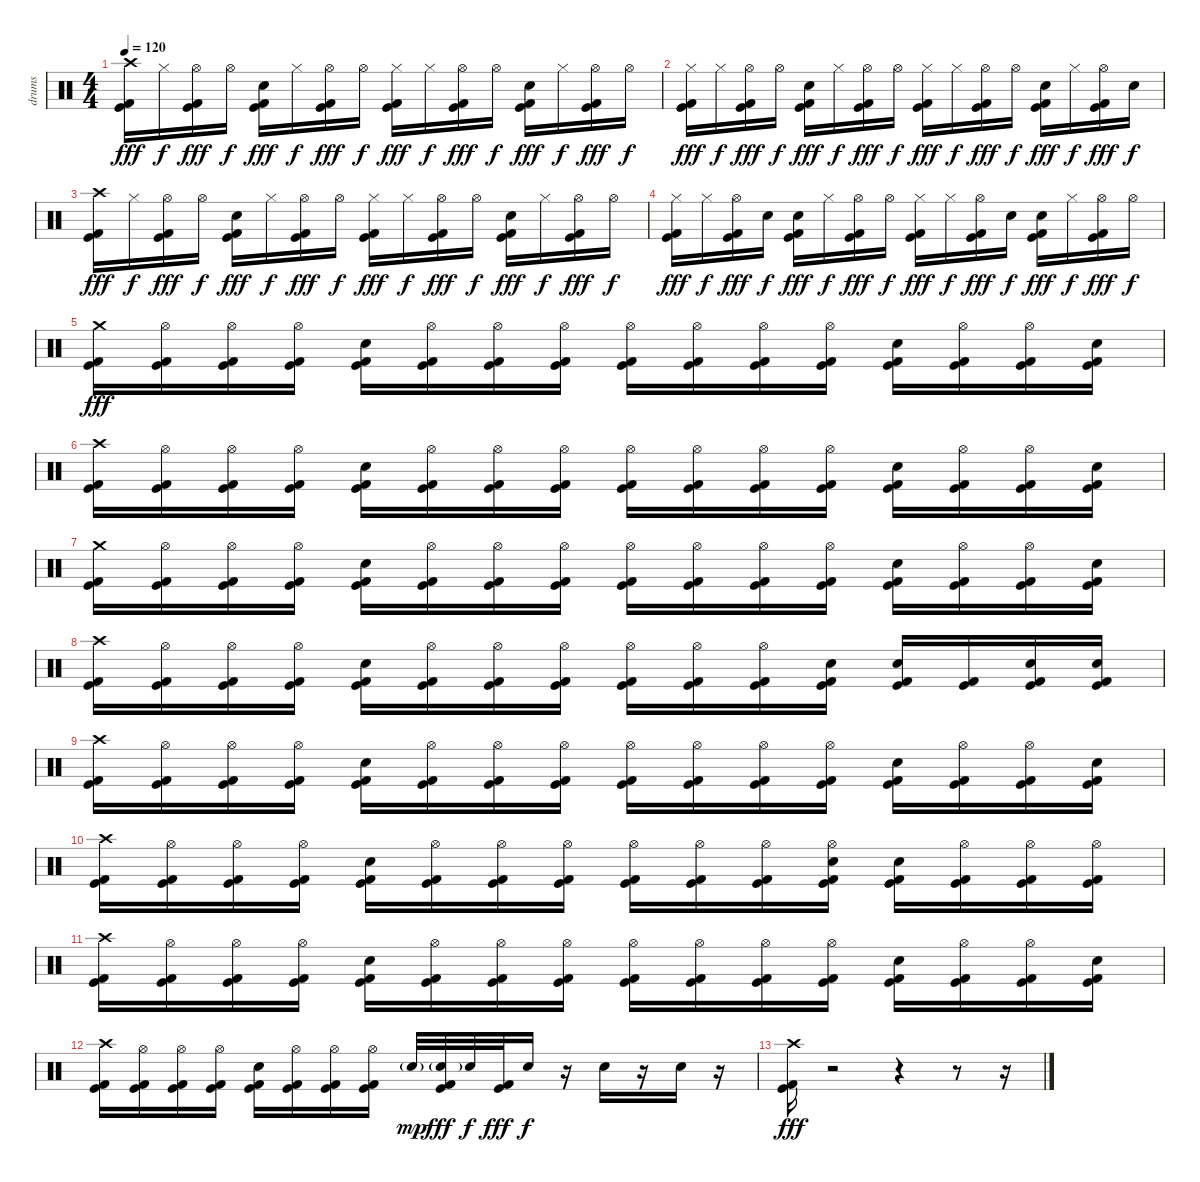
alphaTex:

\track ("drums" "drums") {instrument percussion}
\staff {score}
\articulation defaults
\ts (4 4)
\tempo 120
\clef neutral
\ks c
("Crash high (hit)" "Kick (hit)" "Kick (hit) 2").16{dy fff} "Hi-Hat (closed)".16{dy f} ("Hi-Hat (open)" "Kick (hit)" "Kick (hit) 2").16{dy fff} "Hi-Hat (open)".16{dy f} ("Electric Snare (hit)" "Kick (hit)" "Kick (hit) 2").16{dy fff} "Hi-Hat (closed)".16{dy f} ("Hi-Hat (open)" "Kick (hit)" "Kick (hit) 2").16{dy fff} "Hi-Hat (open)".16{dy f} ("Hi-Hat (closed)" "Kick (hit)" "Kick (hit) 2").16{dy fff} "Hi-Hat (closed)".16{dy f} ("Hi-Hat (open)" "Kick (hit)" "Kick (hit) 2").16{dy fff} "Hi-Hat (open)".16{dy f} ("Electric Snare (hit)" "Kick (hit)" "Kick (hit) 2").16{dy fff} "Hi-Hat (closed)".16{dy f} ("Hi-Hat (open)" "Kick (hit)" "Kick (hit) 2").16{dy fff} "Hi-Hat (open)".16{dy f} |
("Hi-Hat (closed)" "Kick (hit)" "Kick (hit) 2").16{dy fff} "Hi-Hat (closed)".16{dy f} ("Hi-Hat (open)" "Kick (hit)" "Kick (hit) 2").16{dy fff} "Hi-Hat (open)".16{dy f} ("Electric Snare (hit)" "Kick (hit)" "Kick (hit) 2").16{dy fff} "Hi-Hat (closed)".16{dy f} ("Hi-Hat (open)" "Kick (hit)" "Kick (hit) 2").16{dy fff} "Hi-Hat (open)".16{dy f} ("Hi-Hat (closed)" "Kick (hit)" "Kick (hit) 2").16{dy fff} "Hi-Hat (closed)".16{dy f} ("Hi-Hat (open)" "Kick (hit)" "Kick (hit) 2").16{dy fff} "Hi-Hat (open)".16{dy f} ("Electric Snare (hit)" "Kick (hit)" "Kick (hit) 2").16{dy fff} "Hi-Hat (closed)".16{dy f} ("Hi-Hat (open)" "Kick (hit)" "Kick (hit) 2").16{dy fff} "Electric Snare (hit)".16{dy f} |
("Crash high (hit)" "Kick (hit)" "Kick (hit) 2").16{dy fff} "Hi-Hat (closed)".16{dy f} ("Hi-Hat (open)" "Kick (hit)" "Kick (hit) 2").16{dy fff} "Hi-Hat (open)".16{dy f} ("Electric Snare (hit)" "Kick (hit)" "Kick (hit) 2").16{dy fff} "Hi-Hat (closed)".16{dy f} ("Hi-Hat (open)" "Kick (hit)" "Kick (hit) 2").16{dy fff} "Hi-Hat (open)".16{dy f} ("Hi-Hat (closed)" "Kick (hit)" "Kick (hit) 2").16{dy fff} "Hi-Hat (closed)".16{dy f} ("Hi-Hat (open)" "Kick (hit)" "Kick (hit) 2").16{dy fff} "Hi-Hat (open)".16{dy f} ("Electric Snare (hit)" "Kick (hit)" "Kick (hit) 2").16{dy fff} "Hi-Hat (closed)".16{dy f} ("Hi-Hat (open)" "Kick (hit)" "Kick (hit) 2").16{dy fff} "Hi-Hat (open)".16{dy f} |
("Hi-Hat (closed)" "Kick (hit)" "Kick (hit) 2").16{dy fff} "Hi-Hat (closed)".16{dy f} ("Hi-Hat (open)" "Kick (hit)" "Kick (hit) 2").16{dy fff} "Electric Snare (hit)".16{dy f} ("Electric Snare (hit)" "Kick (hit)" "Kick (hit) 2").16{dy fff} "Hi-Hat (closed)".16{dy f} ("Hi-Hat (open)" "Kick (hit)" "Kick (hit) 2").16{dy fff} "Hi-Hat (open)".16{dy f} ("Hi-Hat (closed)" "Kick (hit)" "Kick (hit) 2").16{dy fff} "Hi-Hat (closed)".16{dy f} ("Hi-Hat (open)" "Kick (hit)" "Kick (hit) 2").16{dy fff} "Electric Snare (hit)".16{dy f} ("Electric Snare (hit)" "Kick (hit)" "Kick (hit) 2").16{dy fff} "Hi-Hat (closed)".16{dy f} ("Hi-Hat (open)" "Kick (hit)" "Kick (hit) 2").16{dy fff} "Hi-Hat (open)".16{dy f} |
("Crash medium (hit)" "Kick (hit)" "Kick (hit) 2").16{dy fff} ("Hi-Hat (open)" "Kick (hit)" "Kick (hit) 2").16 ("Hi-Hat (open)" "Kick (hit)" "Kick (hit) 2").16 ("Hi-Hat (open)" "Kick (hit)" "Kick (hit) 2").16 ("Electric Snare (hit)" "Kick (hit)" "Kick (hit) 2").16 ("Hi-Hat (open)" "Kick (hit)" "Kick (hit) 2").16 ("Hi-Hat (open)" "Kick (hit)" "Kick (hit) 2").16 ("Hi-Hat (open)" "Kick (hit)" "Kick (hit) 2").16 ("Hi-Hat (open)" "Kick (hit)" "Kick (hit) 2").16 ("Hi-Hat (open)" "Kick (hit)" "Kick (hit) 2").16 ("Hi-Hat (open)" "Kick (hit)" "Kick (hit) 2").16 ("Hi-Hat (open)" "Kick (hit)" "Kick (hit) 2").16 ("Electric Snare (hit)" "Kick (hit)" "Kick (hit) 2").16 ("Hi-Hat (open)" "Kick (hit)" "Kick (hit) 2").16 ("Hi-Hat (open)" "Kick (hit)" "Kick (hit) 2").16 ("Electric Snare (hit)" "Kick (hit)" "Kick (hit) 2").16 |
("Crash high (hit)" "Kick (hit)" "Kick (hit) 2").16 ("Hi-Hat (open)" "Kick (hit)" "Kick (hit) 2").16 ("Hi-Hat (open)" "Kick (hit)" "Kick (hit) 2").16 ("Hi-Hat (open)" "Kick (hit)" "Kick (hit) 2").16 ("Electric Snare (hit)" "Kick (hit)" "Kick (hit) 2").16 ("Hi-Hat (open)" "Kick (hit)" "Kick (hit) 2").16 ("Hi-Hat (open)" "Kick (hit)" "Kick (hit) 2").16 ("Hi-Hat (open)" "Kick (hit)" "Kick (hit) 2").16 ("Hi-Hat (open)" "Kick (hit)" "Kick (hit) 2").16 ("Hi-Hat (open)" "Kick (hit)" "Kick (hit) 2").16 ("Hi-Hat (open)" "Kick (hit)" "Kick (hit) 2").16 ("Hi-Hat (open)" "Kick (hit)" "Kick (hit) 2").16 ("Electric Snare (hit)" "Kick (hit)" "Kick (hit) 2").16 ("Hi-Hat (open)" "Kick (hit)" "Kick (hit) 2").16 ("Hi-Hat (open)" "Kick (hit)" "Kick (hit) 2").16 ("Electric Snare (hit)" "Kick (hit)" "Kick (hit) 2").16 |
("Crash medium (hit)" "Kick (hit)" "Kick (hit) 2").16 ("Hi-Hat (open)" "Kick (hit)" "Kick (hit) 2").16 ("Hi-Hat (open)" "Kick (hit)" "Kick (hit) 2").16 ("Hi-Hat (open)" "Kick (hit)" "Kick (hit) 2").16 ("Electric Snare (hit)" "Kick (hit)" "Kick (hit) 2").16 ("Hi-Hat (open)" "Kick (hit)" "Kick (hit) 2").16 ("Hi-Hat (open)" "Kick (hit)" "Kick (hit) 2").16 ("Hi-Hat (open)" "Kick (hit)" "Kick (hit) 2").16 ("Hi-Hat (open)" "Kick (hit)" "Kick (hit) 2").16 ("Hi-Hat (open)" "Kick (hit)" "Kick (hit) 2").16 ("Hi-Hat (open)" "Kick (hit)" "Kick (hit) 2").16 ("Hi-Hat (open)" "Kick (hit)" "Kick (hit) 2").16 ("Electric Snare (hit)" "Kick (hit)" "Kick (hit) 2").16 ("Hi-Hat (open)" "Kick (hit)" "Kick (hit) 2").16 ("Hi-Hat (open)" "Kick (hit)" "Kick (hit) 2").16 ("Electric Snare (hit)" "Kick (hit)" "Kick (hit) 2").16 |
("Crash high (hit)" "Kick (hit)" "Kick (hit) 2").16 ("Hi-Hat (open)" "Kick (hit)" "Kick (hit) 2").16 ("Hi-Hat (open)" "Kick (hit)" "Kick (hit) 2").16 ("Hi-Hat (open)" "Kick (hit)" "Kick (hit) 2").16 ("Electric Snare (hit)" "Kick (hit)" "Kick (hit) 2").16 ("Hi-Hat (open)" "Kick (hit)" "Kick (hit) 2").16 ("Hi-Hat (open)" "Kick (hit)" "Kick (hit) 2").16 ("Hi-Hat (open)" "Kick (hit)" "Kick (hit) 2").16 ("Hi-Hat (open)" "Kick (hit)" "Kick (hit) 2").16 ("Hi-Hat (open)" "Kick (hit)" "Kick (hit) 2").16 ("Hi-Hat (open)" "Kick (hit)" "Kick (hit) 2").16 ("Electric Snare (hit)" "Kick (hit)" "Kick (hit) 2").16 ("Electric Snare (hit)" "Kick (hit)" "Kick (hit) 2").16 ("Kick (hit)" "Kick (hit) 2").16 ("Electric Snare (hit)" "Kick (hit)" "Kick (hit) 2").16 ("Electric Snare (hit)" "Kick (hit)" "Kick (hit) 2").16 |
("Crash high (hit)" "Kick (hit)" "Kick (hit) 2").16 ("Hi-Hat (open)" "Kick (hit)" "Kick (hit) 2").16 ("Hi-Hat (open)" "Kick (hit)" "Kick (hit) 2").16 ("Hi-Hat (open)" "Kick (hit)" "Kick (hit) 2").16 ("Electric Snare (hit)" "Kick (hit)" "Kick (hit) 2").16 ("Hi-Hat (open)" "Kick (hit)" "Kick (hit) 2").16 ("Hi-Hat (open)" "Kick (hit)" "Kick (hit) 2").16 ("Hi-Hat (open)" "Kick (hit)" "Kick (hit) 2").16 ("Hi-Hat (open)" "Kick (hit)" "Kick (hit) 2").16 ("Hi-Hat (open)" "Kick (hit)" "Kick (hit) 2").16 ("Hi-Hat (open)" "Kick (hit)" "Kick (hit) 2").16 ("Hi-Hat (open)" "Kick (hit)" "Kick (hit) 2").16 ("Electric Snare (hit)" "Kick (hit)" "Kick (hit) 2").16 ("Hi-Hat (open)" "Kick (hit)" "Kick (hit) 2").16 ("Hi-Hat (open)" "Kick (hit)" "Kick (hit) 2").16 ("Electric Snare (hit)" "Kick (hit)" "Kick (hit) 2").16 |
("Crash high (hit)" "Kick (hit)" "Kick (hit) 2").16 ("Hi-Hat (open)" "Kick (hit)" "Kick (hit) 2").16 ("Hi-Hat (open)" "Kick (hit)" "Kick (hit) 2").16 ("Hi-Hat (open)" "Kick (hit)" "Kick (hit) 2").16 ("Electric Snare (hit)" "Kick (hit)" "Kick (hit) 2").16 ("Hi-Hat (open)" "Kick (hit)" "Kick (hit) 2").16 ("Hi-Hat (open)" "Kick (hit)" "Kick (hit) 2").16 ("Hi-Hat (open)" "Kick (hit)" "Kick (hit) 2").16 ("Hi-Hat (open)" "Kick (hit)" "Kick (hit) 2").16 ("Hi-Hat (open)" "Kick (hit)" "Kick (hit) 2").16 ("Hi-Hat (open)" "Kick (hit)" "Kick (hit) 2").16 ("Hi-Hat (open)" "Electric Snare (hit)" "Kick (hit)" "Kick (hit) 2").16 ("Electric Snare (hit)" "Kick (hit)" "Kick (hit) 2").16 ("Hi-Hat (open)" "Kick (hit)" "Kick (hit) 2").16 ("Hi-Hat (open)" "Kick (hit)" "Kick (hit) 2").16 ("Hi-Hat (open)" "Kick (hit)" "Kick (hit) 2").16 |
("Crash high (hit)" "Kick (hit)" "Kick (hit) 2").16 ("Hi-Hat (open)" "Kick (hit)" "Kick (hit) 2").16 ("Hi-Hat (open)" "Kick (hit)" "Kick (hit) 2").16 ("Hi-Hat (open)" "Kick (hit)" "Kick (hit) 2").16 ("Electric Snare (hit)" "Kick (hit)" "Kick (hit) 2").16 ("Hi-Hat (open)" "Kick (hit)" "Kick (hit) 2").16 ("Hi-Hat (open)" "Kick (hit)" "Kick (hit) 2").16 ("Hi-Hat (open)" "Kick (hit)" "Kick (hit) 2").16 ("Hi-Hat (open)" "Kick (hit)" "Kick (hit) 2").16 ("Hi-Hat (open)" "Kick (hit)" "Kick (hit) 2").16 ("Hi-Hat (open)" "Kick (hit)" "Kick (hit) 2").16 ("Hi-Hat (open)" "Kick (hit)" "Kick (hit) 2").16 ("Electric Snare (hit)" "Kick (hit)" "Kick (hit) 2").16 ("Hi-Hat (open)" "Kick (hit)" "Kick (hit) 2").16 ("Hi-Hat (open)" "Kick (hit)" "Kick (hit) 2").16 ("Electric Snare (hit)" "Kick (hit)" "Kick (hit) 2").16 |
("Crash high (hit)" "Kick (hit)" "Kick (hit) 2").16 ("Hi-Hat (open)" "Kick (hit)" "Kick (hit) 2").16 ("Hi-Hat (open)" "Kick (hit)" "Kick (hit) 2").16 ("Hi-Hat (open)" "Kick (hit)" "Kick (hit) 2").16 ("Electric Snare (hit)" "Kick (hit)" "Kick (hit) 2").16 ("Hi-Hat (open)" "Kick (hit)" "Kick (hit) 2").16 ("Hi-Hat (open)" "Kick (hit)" "Kick (hit) 2").16 ("Hi-Hat (open)" "Kick (hit)" "Kick (hit) 2").16 "Electric Snare (hit)"{g}.32{dy mp} ("Electric Snare (hit)"{g} "Kick (hit)" "Kick (hit) 2").32{dy fff} "Electric Snare (hit)".32{dy f} ("Kick (hit)" "Kick (hit) 2").32{dy fff} "Electric Snare (hit)".16{dy f} r.16 "Electric Snare (hit)".16 r.16 "Electric Snare (hit)".16 r.16 |
("Crash high (hit)" "Kick (hit)" "Kick (hit) 2").16{dy fff} r.2 r.4 r.8 r.16
